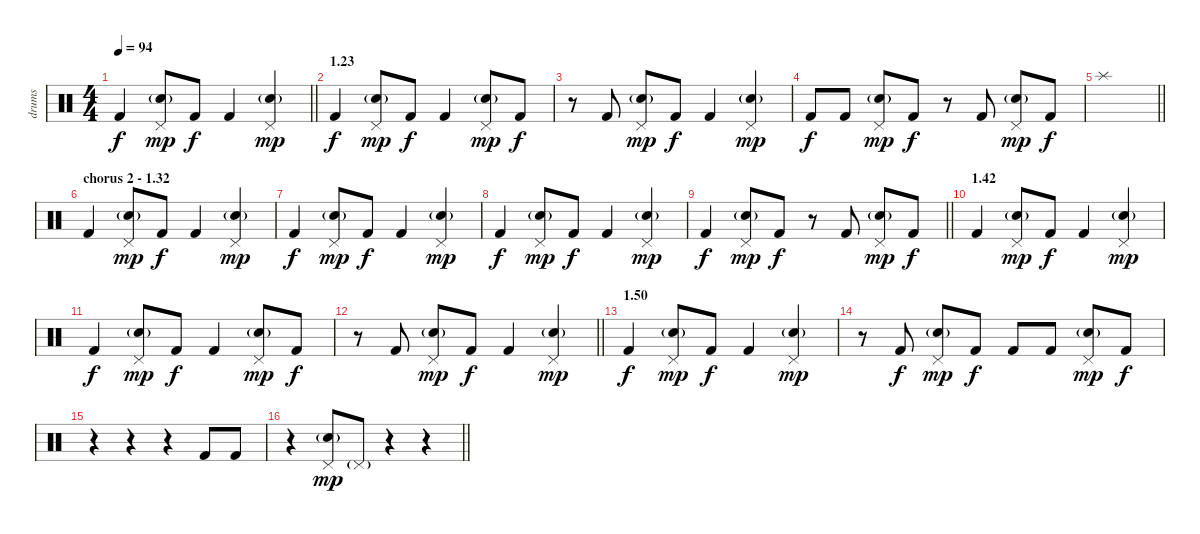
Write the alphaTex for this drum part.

\track ("drums" "drums") {instrument percussion}
\staff {score}
\articulation defaults
\ts (4 4)
\tempo 94
\clef neutral
\barLineRight lightlight
\ks c "Kick (hit) 2".4{dy f}
("Pedal Hi-Hat (hit)" "Electric Snare (hit)"{g}).8{dy mp} "Kick (hit) 2".8{dy f} "Kick (hit) 2".4 ("Pedal Hi-Hat (hit)" "Electric Snare (hit)"{g}).4{dy mp} |
\section ("" "1.23")
"Kick (hit) 2".4{dy f} ("Pedal Hi-Hat (hit)" "Electric Snare (hit)"{g}).8{dy mp} "Kick (hit) 2".8{dy f} "Kick (hit) 2".4 ("Pedal Hi-Hat (hit)" "Electric Snare (hit)"{g}).8{dy mp} "Kick (hit) 2".8{dy f} |
r.8 "Kick (hit) 2".8 ("Pedal Hi-Hat (hit)" "Electric Snare (hit)"{g}).8{dy mp} "Kick (hit) 2".8{dy f} "Kick (hit) 2".4 ("Pedal Hi-Hat (hit)" "Electric Snare (hit)"{g}).4{dy mp} |
"Kick (hit) 2".8{dy f} "Kick (hit) 2".8 ("Pedal Hi-Hat (hit)" "Electric Snare (hit)"{g}).8{dy mp} "Kick (hit) 2".8{dy f} r.8 "Kick (hit) 2".8 ("Pedal Hi-Hat (hit)" "Electric Snare (hit)"{g}).8{dy mp} "Kick (hit) 2".8{dy f} |
\barLineRight lightlight "Splash (hit)".1
|
\section ("" "chorus 2 - 1.32")
"Kick (hit) 2".4 ("Pedal Hi-Hat (hit)" "Electric Snare (hit)"{g}).8{dy mp} "Kick (hit) 2".8{dy f} "Kick (hit) 2".4 ("Pedal Hi-Hat (hit)" "Electric Snare (hit)"{g}).4{dy mp} |
"Kick (hit) 2".4{dy f} ("Pedal Hi-Hat (hit)" "Electric Snare (hit)"{g}).8{dy mp} "Kick (hit) 2".8{dy f} "Kick (hit) 2".4 ("Pedal Hi-Hat (hit)" "Electric Snare (hit)"{g}).4{dy mp} |
"Kick (hit) 2".4{dy f} ("Pedal Hi-Hat (hit)" "Electric Snare (hit)"{g}).8{dy mp} "Kick (hit) 2".8{dy f} "Kick (hit) 2".4 ("Pedal Hi-Hat (hit)" "Electric Snare (hit)"{g}).4{dy mp} |
\barLineRight lightlight "Kick (hit) 2".4{dy f}
("Pedal Hi-Hat (hit)" "Electric Snare (hit)"{g}).8{dy mp} "Kick (hit) 2".8{dy f} r.8 "Kick (hit) 2".8 ("Pedal Hi-Hat (hit)" "Electric Snare (hit)"{g}).8{dy mp} "Kick (hit) 2".8{dy f} |
\section ("" "1.42")
"Kick (hit) 2".4 ("Pedal Hi-Hat (hit)" "Electric Snare (hit)"{g}).8{dy mp} "Kick (hit) 2".8{dy f} "Kick (hit) 2".4 ("Pedal Hi-Hat (hit)" "Electric Snare (hit)"{g}).4{dy mp} |
"Kick (hit) 2".4{dy f} ("Pedal Hi-Hat (hit)" "Electric Snare (hit)"{g}).8{dy mp} "Kick (hit) 2".8{dy f} "Kick (hit) 2".4 ("Pedal Hi-Hat (hit)" "Electric Snare (hit)"{g}).8{dy mp} "Kick (hit) 2".8{dy f} |
\barLineRight lightlight
r.8 "Kick (hit) 2".8 ("Pedal Hi-Hat (hit)" "Electric Snare (hit)"{g}).8{dy mp} "Kick (hit) 2".8{dy f} "Kick (hit) 2".4 ("Pedal Hi-Hat (hit)" "Electric Snare (hit)"{g}).4{dy mp} |
\section ("" "1.50")
"Kick (hit) 2".4{dy f} ("Pedal Hi-Hat (hit)" "Electric Snare (hit)"{g}).8{dy mp} "Kick (hit) 2".8{dy f} "Kick (hit) 2".4 ("Pedal Hi-Hat (hit)" "Electric Snare (hit)"{g}).4{dy mp} |
r.8 "Kick (hit) 2".8{dy f} ("Pedal Hi-Hat (hit)" "Electric Snare (hit)"{g}).8{dy mp} "Kick (hit) 2".8{dy f} "Kick (hit) 2".8 "Kick (hit) 2".8 ("Pedal Hi-Hat (hit)" "Electric Snare (hit)"{g}).8{dy mp} "Kick (hit) 2".8{dy f} |
r.4 r.4 r.4 "Kick (hit) 2".8 "Kick (hit) 2".8 |
\barLineRight lightlight
r.4 ("Pedal Hi-Hat (hit)" "Electric Snare (hit)"{g}).8{dy mp} "Pedal Hi-Hat (hit)"{g}.8 r.4 r.4
